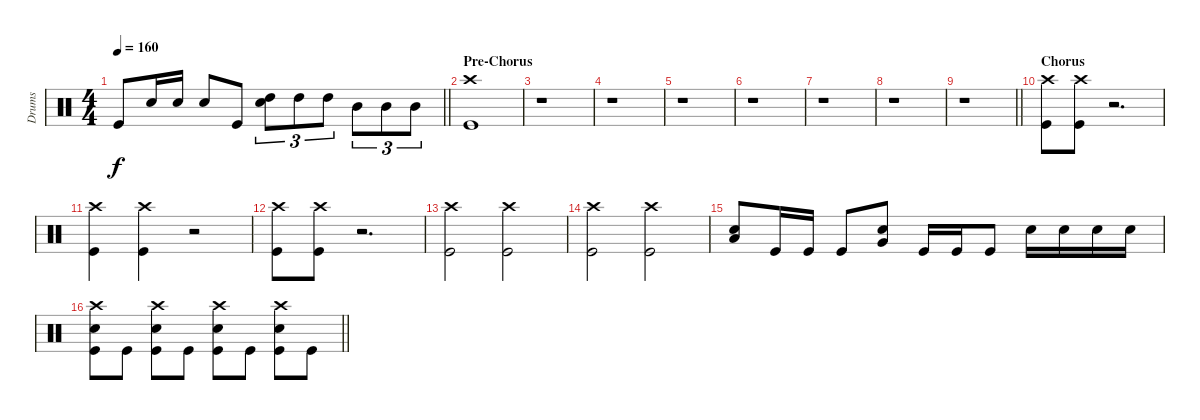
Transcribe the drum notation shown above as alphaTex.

\track ("Drums " "Drums ") {instrument percussion}
\staff {score}
\articulation defaults
\ts (4 4)
\tempo 160
\clef neutral
\barLineRight lightlight
\ks c "Kick (hit)".8{dy f} "Electric Snare (hit)".16 "Electric Snare (hit)".16 "Electric Snare (hit)".8 "Kick (hit)".8
("High Tom (hit)" "Electric Snare (hit)").8{tu (3 2)} "High Tom (hit)".8{tu (3 2)} "High Tom (hit)".8{tu (3 2)} "Mid Tom (hit)".8{tu (3 2)} "Mid Tom (hit)".8{tu (3 2)} "Mid Tom (hit)".8{tu (3 2)} |
\section ("" "Pre-Chorus ")
("Crash high (hit)" "Kick (hit)").1 |
r.1 |
r.1 |
r.1 |
r.1 |
r.1 |
r.1 |
\barLineRight lightlight
r.1 |
\section ("" "Chorus ")
("Crash high (hit)" "Kick (hit)").8 ("Crash high (hit)" "Kick (hit)").8 r.2{d} |
("Crash high (hit)" "Kick (hit)").4 ("Crash high (hit)" "Kick (hit)").4 r.2 |
("Crash high (hit)" "Kick (hit)").8 ("Crash high (hit)" "Kick (hit)").8 r.2{d} |
("Crash high (hit)" "Kick (hit)").2 ("Crash high (hit)" "Kick (hit)").2 |
("Crash high (hit)" "Kick (hit)").2 ("Crash high (hit)" "Kick (hit)").2 |
("Low Tom (hit)" "Electric Snare (hit)").8 "Kick (hit)".16 "Kick (hit)".16 "Kick (hit)".8 ("Very Low Tom (hit)" "Electric Snare (hit)").8 "Kick (hit)".16 "Kick (hit)".16 "Kick (hit)".8 "Electric Snare (hit)".16 "Electric Snare (hit)".16 "Electric Snare (hit)".16 "Electric Snare (hit)".16 |
\barLineRight lightlight
("Crash high (hit)" "Electric Snare (hit)" "Kick (hit)").8 "Kick (hit)".8 ("Crash high (hit)" "Electric Snare (hit)" "Kick (hit)").8 "Kick (hit)".8 ("Crash high (hit)" "Electric Snare (hit)" "Kick (hit)").8 "Kick (hit)".8 ("Crash high (hit)" "Electric Snare (hit)" "Kick (hit)").8 "Kick (hit)".8
